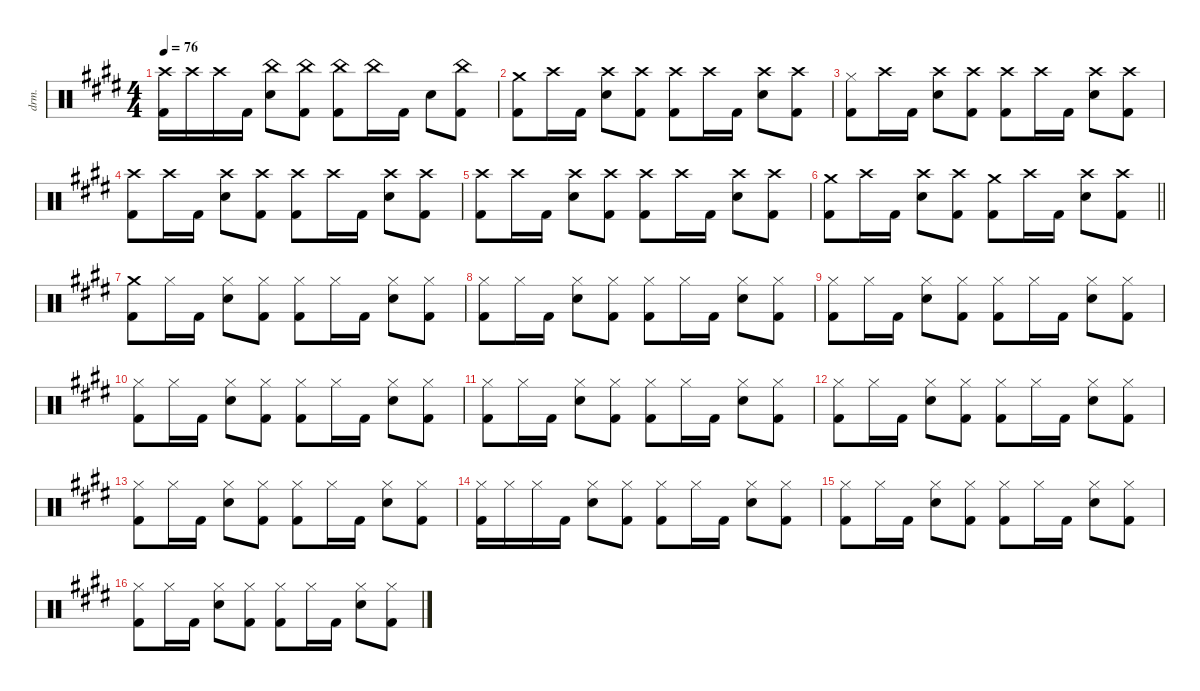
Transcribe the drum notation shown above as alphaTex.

\defaultSystemsLayout 4
\hideDynamics
\bracketExtendMode nobrackets
\otherSystemsTrackNameOrientation horizontal
\track ("Drums" "drm.") {defaultSystemsLayout 4 instrument percussion}
\staff {score}
\articulation defaults
\ts (4 4)
\tempo 76
\clef neutral
\ks e
("Crash high (hit)"{acc forcenatural} "Kick (hit) 2"{acc forcenatural}).16{dy f beam Down} "Crash high (hit)"{acc forcenatural}.16{beam Down} "Crash high (hit)"{acc forcenatural}.16{beam Down} "Kick (hit) 2"{acc forcenatural}.16{beam Down} ("China (hit)"{acc forcenatural} "Snare (hit) 2"{acc forcenatural}).8{dy mf beam Down} ("China (hit)"{acc forcenatural} "Kick (hit) 2"{acc forcenatural}).8{dy f beam Down} ("China (hit)"{acc forcenatural} "Kick (hit) 2"{acc forcenatural}).8{beam Down} "China (hit)"{acc forcenatural}.16{beam Down} "Kick (hit) 2"{acc forcenatural}.16{beam Down} "Snare (hit) 2"{acc forcenatural}.8{beam Down} ("China (hit)"{acc forcenatural} "Kick (hit) 2"{acc forcenatural}).8{beam Down} |
("Crash medium (hit)"{acc forcenatural} "Kick (hit) 2"{acc forcenatural}).8{beam Down} "Crash high (hit)"{acc forcenatural}.16{beam Down} "Kick (hit) 2"{acc forcenatural}.16{beam Down} ("Crash high (hit)"{acc forcenatural} "Snare (hit) 2"{acc forcenatural}).8{dy mf beam Down} ("Crash high (hit)"{acc forcenatural} "Kick (hit) 2"{acc forcenatural}).8{dy f beam Down} ("Crash high (hit)"{acc forcenatural} "Kick (hit) 2"{acc forcenatural}).8{beam Down} "Crash high (hit)"{acc forcenatural}.16{beam Down} "Kick (hit) 2"{acc forcenatural}.16{beam Down} ("Crash high (hit)"{acc forcenatural} "Snare (hit) 2"{acc forcenatural}).8{dy mf beam Down} ("Crash high (hit)"{acc forcenatural} "Kick (hit) 2"{acc forcenatural}).8{dy f beam Down} |
("Hi-Hat (closed)"{acc forcenatural} "Kick (hit) 2"{acc forcenatural}).8{beam Down} "Crash high (hit)"{acc forcenatural}.16{beam Down} "Kick (hit) 2"{acc forcenatural}.16{beam Down} ("Crash high (hit)"{acc forcenatural} "Snare (hit) 2"{acc forcenatural}).8{dy mf beam Down} ("Crash high (hit)"{acc forcenatural} "Kick (hit) 2"{acc forcenatural}).8{dy f beam Down} ("Crash high (hit)"{acc forcenatural} "Kick (hit) 2"{acc forcenatural}).8{beam Down} "Crash high (hit)"{acc forcenatural}.16{beam Down} "Kick (hit) 2"{acc forcenatural}.16{beam Down} ("Crash high (hit)"{acc forcenatural} "Snare (hit) 2"{acc forcenatural}).8{dy mf beam Down} ("Crash high (hit)"{acc forcenatural} "Kick (hit) 2"{acc forcenatural}).8{dy f beam Down} |
("Crash high (hit)"{acc forcenatural} "Kick (hit) 2"{acc forcenatural}).8{beam Down} "Crash high (hit)"{acc forcenatural}.16{beam Down} "Kick (hit) 2"{acc forcenatural}.16{beam Down} ("Crash high (hit)"{acc forcenatural} "Snare (hit) 2"{acc forcenatural}).8{dy mf beam Down} ("Crash high (hit)"{acc forcenatural} "Kick (hit) 2"{acc forcenatural}).8{dy f beam Down} ("Crash high (hit)"{acc forcenatural} "Kick (hit) 2"{acc forcenatural}).8{beam Down} "Crash high (hit)"{acc forcenatural}.16{beam Down} "Kick (hit) 2"{acc forcenatural}.16{beam Down} ("Crash high (hit)"{acc forcenatural} "Snare (hit) 2"{acc forcenatural}).8{dy mf beam Down} ("Crash high (hit)"{acc forcenatural} "Kick (hit) 2"{acc forcenatural}).8{dy f beam Down} |
("Crash high (hit)"{acc forcenatural} "Kick (hit) 2"{acc forcenatural}).8{beam Down} "Crash high (hit)"{acc forcenatural}.16{beam Down} "Kick (hit) 2"{acc forcenatural}.16{beam Down} ("Crash high (hit)"{acc forcenatural} "Snare (hit) 2"{acc forcenatural}).8{dy mf beam Down} ("Crash high (hit)"{acc forcenatural} "Kick (hit) 2"{acc forcenatural}).8{dy f beam Down} ("Crash high (hit)"{acc forcenatural} "Kick (hit) 2"{acc forcenatural}).8{beam Down} "Crash high (hit)"{acc forcenatural}.16{beam Down} "Kick (hit) 2"{acc forcenatural}.16{beam Down} ("Crash high (hit)"{acc forcenatural} "Snare (hit) 2"{acc forcenatural}).8{dy mf beam Down} ("Crash high (hit)"{acc forcenatural} "Kick (hit) 2"{acc forcenatural}).8{dy f beam Down} |
\barLineRight lightlight
("Crash medium (hit)"{acc forcenatural} "Kick (hit) 2"{acc forcenatural}).8{beam Down} "Crash high (hit)"{acc forcenatural}.16{beam Down} "Kick (hit) 2"{acc forcenatural}.16{beam Down} ("Crash high (hit)"{acc forcenatural} "Snare (hit) 2"{acc forcenatural}).8{dy mf beam Down} ("Crash high (hit)"{acc forcenatural} "Kick (hit) 2"{acc forcenatural}).8{dy f beam Down} ("Crash medium (hit)"{acc forcenatural} "Kick (hit) 2"{acc forcenatural}).8{beam Down} "Crash high (hit)"{acc forcenatural}.16{beam Down} "Kick (hit) 2"{acc forcenatural}.16{beam Down} ("Crash high (hit)"{acc forcenatural} "Snare (hit) 2"{acc forcenatural}).8{dy mf beam Down} ("Crash high (hit)"{acc forcenatural} "Kick (hit) 2"{acc forcenatural}).8{dy f beam Down} |
("Crash medium (hit)"{acc forcenatural} "Kick (hit) 2"{acc forcenatural}).8{beam Down} "Hi-Hat (closed)"{acc forcenatural}.16{beam Down} "Kick (hit) 2"{acc forcenatural}.16{beam Down} ("Hi-Hat (closed)"{acc forcenatural} "Snare (hit) 2"{acc forcenatural}).8{dy mf beam Down} ("Hi-Hat (closed)"{acc forcenatural} "Kick (hit) 2"{acc forcenatural}).8{dy f beam Down} ("Hi-Hat (closed)"{acc forcenatural} "Kick (hit) 2"{acc forcenatural}).8{beam Down} "Hi-Hat (closed)"{acc forcenatural}.16{beam Down} "Kick (hit) 2"{acc forcenatural}.16{beam Down} ("Hi-Hat (closed)"{acc forcenatural} "Snare (hit) 2"{acc forcenatural}).8{dy mf beam Down} ("Hi-Hat (closed)"{acc forcenatural} "Kick (hit) 2"{acc forcenatural}).8{dy f beam Down} |
("Hi-Hat (closed)"{acc forcenatural} "Kick (hit) 2"{acc forcenatural}).8{beam Down} "Hi-Hat (closed)"{acc forcenatural}.16{beam Down} "Kick (hit) 2"{acc forcenatural}.16{beam Down} ("Hi-Hat (closed)"{acc forcenatural} "Snare (hit) 2"{acc forcenatural}).8{dy mf beam Down} ("Hi-Hat (closed)"{acc forcenatural} "Kick (hit) 2"{acc forcenatural}).8{dy f beam Down} ("Hi-Hat (closed)"{acc forcenatural} "Kick (hit) 2"{acc forcenatural}).8{beam Down} "Hi-Hat (closed)"{acc forcenatural}.16{beam Down} "Kick (hit) 2"{acc forcenatural}.16{beam Down} ("Hi-Hat (closed)"{acc forcenatural} "Snare (hit) 2"{acc forcenatural}).8{dy mf beam Down} ("Hi-Hat (closed)"{acc forcenatural} "Kick (hit) 2"{acc forcenatural}).8{dy f beam Down} |
("Hi-Hat (closed)"{acc forcenatural} "Kick (hit) 2"{acc forcenatural}).8{beam Down} "Hi-Hat (closed)"{acc forcenatural}.16{beam Down} "Kick (hit) 2"{acc forcenatural}.16{beam Down} ("Hi-Hat (closed)"{acc forcenatural} "Snare (hit) 2"{acc forcenatural}).8{dy mf beam Down} ("Hi-Hat (closed)"{acc forcenatural} "Kick (hit) 2"{acc forcenatural}).8{dy f beam Down} ("Hi-Hat (closed)"{acc forcenatural} "Kick (hit) 2"{acc forcenatural}).8{beam Down} "Hi-Hat (closed)"{acc forcenatural}.16{beam Down} "Kick (hit) 2"{acc forcenatural}.16{beam Down} ("Hi-Hat (closed)"{acc forcenatural} "Snare (hit) 2"{acc forcenatural}).8{dy mf beam Down} ("Hi-Hat (closed)"{acc forcenatural} "Kick (hit) 2"{acc forcenatural}).8{dy f beam Down} |
("Hi-Hat (closed)"{acc forcenatural} "Kick (hit) 2"{acc forcenatural}).8{beam Down} "Hi-Hat (closed)"{acc forcenatural}.16{beam Down} "Kick (hit) 2"{acc forcenatural}.16{beam Down} ("Hi-Hat (closed)"{acc forcenatural} "Snare (hit) 2"{acc forcenatural}).8{dy mf beam Down} ("Hi-Hat (closed)"{acc forcenatural} "Kick (hit) 2"{acc forcenatural}).8{dy f beam Down} ("Hi-Hat (closed)"{acc forcenatural} "Kick (hit) 2"{acc forcenatural}).8{beam Down} "Hi-Hat (closed)"{acc forcenatural}.16{beam Down} "Kick (hit) 2"{acc forcenatural}.16{beam Down} ("Hi-Hat (closed)"{acc forcenatural} "Snare (hit) 2"{acc forcenatural}).8{dy mf beam Down} ("Hi-Hat (closed)"{acc forcenatural} "Kick (hit) 2"{acc forcenatural}).8{dy f beam Down} |
("Hi-Hat (closed)"{acc forcenatural} "Kick (hit) 2"{acc forcenatural}).8{beam Down} "Hi-Hat (closed)"{acc forcenatural}.16{beam Down} "Kick (hit) 2"{acc forcenatural}.16{beam Down} ("Hi-Hat (closed)"{acc forcenatural} "Snare (hit) 2"{acc forcenatural}).8{dy mf beam Down} ("Hi-Hat (closed)"{acc forcenatural} "Kick (hit) 2"{acc forcenatural}).8{dy f beam Down} ("Hi-Hat (closed)"{acc forcenatural} "Kick (hit) 2"{acc forcenatural}).8{beam Down} "Hi-Hat (closed)"{acc forcenatural}.16{beam Down} "Kick (hit) 2"{acc forcenatural}.16{beam Down} ("Hi-Hat (closed)"{acc forcenatural} "Snare (hit) 2"{acc forcenatural}).8{dy mf beam Down} ("Hi-Hat (closed)"{acc forcenatural} "Kick (hit) 2"{acc forcenatural}).8{dy f beam Down} |
("Hi-Hat (closed)"{acc forcenatural} "Kick (hit) 2"{acc forcenatural}).8{beam Down} "Hi-Hat (closed)"{acc forcenatural}.16{beam Down} "Kick (hit) 2"{acc forcenatural}.16{beam Down} ("Hi-Hat (closed)"{acc forcenatural} "Snare (hit) 2"{acc forcenatural}).8{dy mf beam Down} ("Hi-Hat (closed)"{acc forcenatural} "Kick (hit) 2"{acc forcenatural}).8{dy f beam Down} ("Hi-Hat (closed)"{acc forcenatural} "Kick (hit) 2"{acc forcenatural}).8{beam Down} "Hi-Hat (closed)"{acc forcenatural}.16{beam Down} "Kick (hit) 2"{acc forcenatural}.16{beam Down} ("Hi-Hat (closed)"{acc forcenatural} "Snare (hit) 2"{acc forcenatural}).8{dy mf beam Down} ("Hi-Hat (closed)"{acc forcenatural} "Kick (hit) 2"{acc forcenatural}).8{dy f beam Down} |
("Hi-Hat (closed)"{acc forcenatural} "Kick (hit) 2"{acc forcenatural}).8{beam Down} "Hi-Hat (closed)"{acc forcenatural}.16{beam Down} "Kick (hit) 2"{acc forcenatural}.16{beam Down} ("Hi-Hat (closed)"{acc forcenatural} "Snare (hit) 2"{acc forcenatural}).8{dy mf beam Down} ("Hi-Hat (closed)"{acc forcenatural} "Kick (hit) 2"{acc forcenatural}).8{dy f beam Down} ("Hi-Hat (closed)"{acc forcenatural} "Kick (hit) 2"{acc forcenatural}).8{beam Down} "Hi-Hat (closed)"{acc forcenatural}.16{beam Down} "Kick (hit) 2"{acc forcenatural}.16{beam Down} ("Hi-Hat (closed)"{acc forcenatural} "Snare (hit) 2"{acc forcenatural}).8{dy mf beam Down} ("Hi-Hat (closed)"{acc forcenatural} "Kick (hit) 2"{acc forcenatural}).8{dy f beam Down} |
("Hi-Hat (closed)"{acc forcenatural} "Kick (hit) 2"{acc forcenatural}).16{beam Down} "Hi-Hat (closed)"{acc forcenatural}.16{dy mf beam Down} "Hi-Hat (closed)"{acc forcenatural}.16{dy f beam Down} "Kick (hit) 2"{acc forcenatural}.16{beam Down} ("Hi-Hat (closed)"{acc forcenatural} "Snare (hit) 2"{acc forcenatural}).8{dy mf beam Down} ("Hi-Hat (closed)"{acc forcenatural} "Kick (hit) 2"{acc forcenatural}).8{dy f beam Down} ("Hi-Hat (closed)"{acc forcenatural} "Kick (hit) 2"{acc forcenatural}).8{beam Down} "Hi-Hat (closed)"{acc forcenatural}.16{beam Down} "Kick (hit) 2"{acc forcenatural}.16{beam Down} ("Hi-Hat (closed)"{acc forcenatural} "Snare (hit) 2"{acc forcenatural}).8{dy mf beam Down} ("Hi-Hat (closed)"{acc forcenatural} "Kick (hit) 2"{acc forcenatural}).8{dy f beam Down} |
("Hi-Hat (closed)"{acc forcenatural} "Kick (hit) 2"{acc forcenatural}).8{beam Down} "Hi-Hat (closed)"{acc forcenatural}.16{beam Down} "Kick (hit) 2"{acc forcenatural}.16{beam Down} ("Hi-Hat (closed)"{acc forcenatural} "Snare (hit) 2"{acc forcenatural}).8{dy mf beam Down} ("Hi-Hat (closed)"{acc forcenatural} "Kick (hit) 2"{acc forcenatural}).8{dy f beam Down} ("Hi-Hat (closed)"{acc forcenatural} "Kick (hit) 2"{acc forcenatural}).8{beam Down} "Hi-Hat (closed)"{acc forcenatural}.16{beam Down} "Kick (hit) 2"{acc forcenatural}.16{beam Down} ("Hi-Hat (closed)"{acc forcenatural} "Snare (hit) 2"{acc forcenatural}).8{dy mf beam Down} ("Hi-Hat (closed)"{acc forcenatural} "Kick (hit) 2"{acc forcenatural}).8{dy f beam Down} |
("Hi-Hat (closed)"{acc forcenatural} "Kick (hit) 2"{acc forcenatural}).8{beam Down} "Hi-Hat (closed)"{acc forcenatural}.16{beam Down} "Kick (hit) 2"{acc forcenatural}.16{beam Down} ("Hi-Hat (closed)"{acc forcenatural} "Snare (hit) 2"{acc forcenatural}).8{dy mf beam Down} ("Hi-Hat (closed)"{acc forcenatural} "Kick (hit) 2"{acc forcenatural}).8{dy f beam Down} ("Hi-Hat (closed)"{acc forcenatural} "Kick (hit) 2"{acc forcenatural}).8{beam Down} "Hi-Hat (closed)"{acc forcenatural}.16{beam Down} "Kick (hit) 2"{acc forcenatural}.16{beam Down} ("Hi-Hat (closed)"{acc forcenatural} "Snare (hit) 2"{acc forcenatural}).8{dy mf beam Down} ("Hi-Hat (closed)"{acc forcenatural} "Kick (hit) 2"{acc forcenatural}).8{dy f beam Down}
